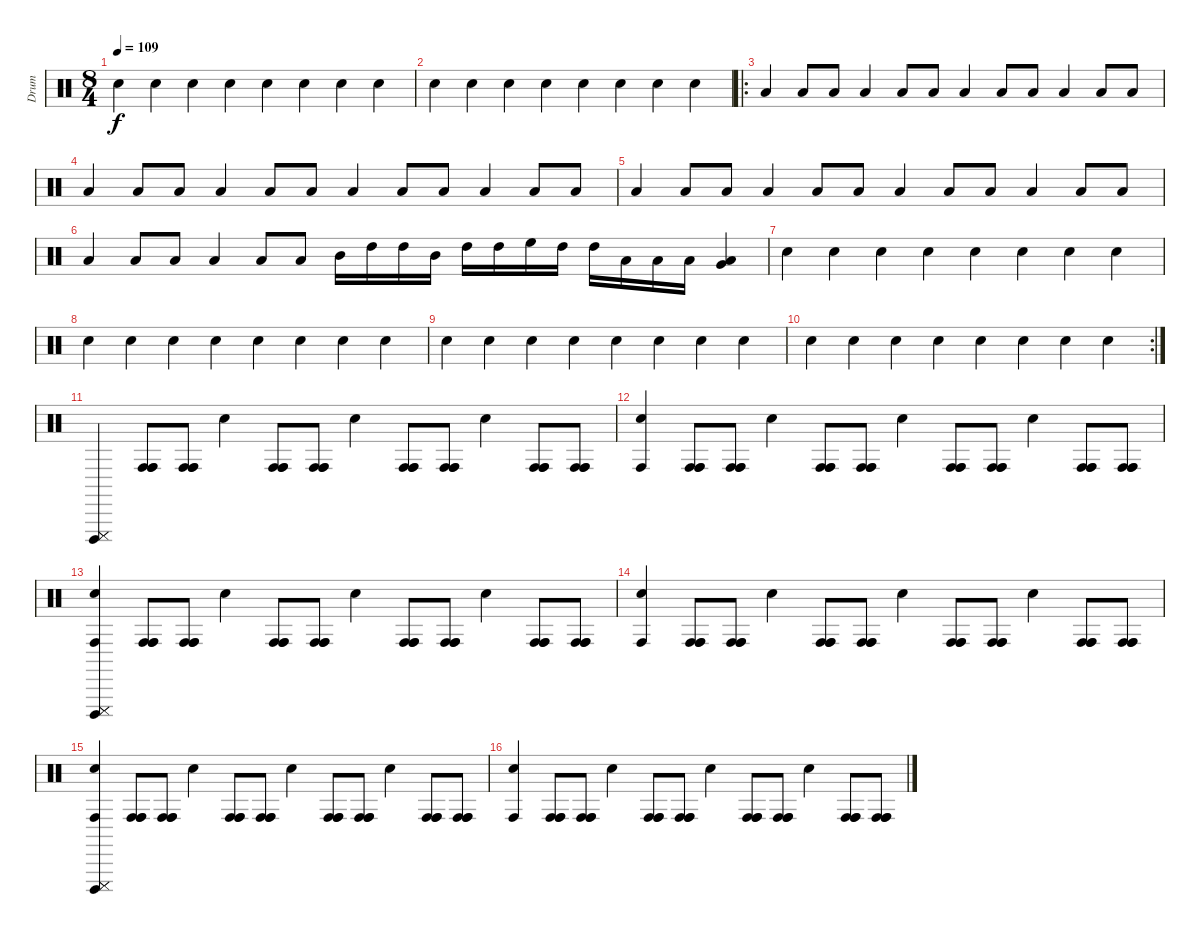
\track ("Drum" "Drum") {instrument percussion}
\staff {score}
\articulation defaults
\ts (8 4)
\tempo 109
\clef neutral
\ks c "Snare (hit)"{x}.4{dy f} "Hand Clap (hit)".4 "Hand Clap (hit)"{x}.4 "Hand Clap (hit)".4 "Hand Clap (hit)"{x}.4 "Hand Clap (hit)".4 "Hand Clap (hit)"{x}.4 "Hand Clap (hit)".4
|
"Hand Clap (hit)"{x}.4 "Hand Clap (hit)".4 "Hand Clap (hit)"{x}.4 "Hand Clap (hit)".4 "Hand Clap (hit)"{x}.4 "Hand Clap (hit)".4 "Hand Clap (hit)"{x}.4 "Hand Clap (hit)".4 |
\ro "Low Tom (hit)".4 "Low Floor Tom (hit)".8 "Low Floor Tom (hit)".8 "Low Tom (hit)".4 "Low Floor Tom (hit)".8 "Low Floor Tom (hit)".8 "Low Tom (hit)".4 "Low Floor Tom (hit)".8 "Low Floor Tom (hit)".8 "Low Tom (hit)".4 "Low Floor Tom (hit)".8 "Low Floor Tom (hit)".8
|
"Low Tom (hit)".4 "Low Floor Tom (hit)".8 "Low Floor Tom (hit)".8 "Low Tom (hit)".4 "Low Floor Tom (hit)".8 "Low Floor Tom (hit)".8 "Low Tom (hit)".4 "Low Floor Tom (hit)".8 "Low Floor Tom (hit)".8 "Low Tom (hit)".4 "Low Floor Tom (hit)".8 "Low Floor Tom (hit)".8 |
"Low Tom (hit)".4 "Low Floor Tom (hit)".8 "Low Floor Tom (hit)".8 "Low Tom (hit)".4 "Low Floor Tom (hit)".8 "Low Floor Tom (hit)".8 "Low Tom (hit)".4 "Low Floor Tom (hit)".8 "Low Floor Tom (hit)".8 "Low Tom (hit)".4 "Low Floor Tom (hit)".8 "Low Floor Tom (hit)".8 |
"Low Tom (hit)".4 "Low Floor Tom (hit)".8 "Low Floor Tom (hit)".8 "Low Tom (hit)".4 "Low Floor Tom (hit)".8 "Low Floor Tom (hit)".8 "Mid Tom (hit)".16 "High Tom (hit)".16 "High Tom (hit)".16 "Mid Tom (hit)".16 "High Tom (hit)".16 "High Tom (hit)".16 "High Floor Tom (hit)".16 "High Tom (hit)".16 "High Tom (hit)".16 "Low Floor Tom (hit)".16 "Low Floor Tom (hit)".16 "Low Floor Tom (hit)".16 ("Very Low Tom (hit)" "Low Floor Tom (hit)").4 |
"Snare (hit)"{x}.4 "Hand Clap (hit)".4 "Hand Clap (hit)"{x}.4 "Hand Clap (hit)".4 "Hand Clap (hit)"{x}.4 "Hand Clap (hit)".4 "Hand Clap (hit)"{x}.4 "Hand Clap (hit)".4 |
"Snare (hit)"{x}.4 "Hand Clap (hit)".4 "Hand Clap (hit)"{x}.4 "Hand Clap (hit)".4 "Hand Clap (hit)"{x}.4 "Hand Clap (hit)".4 "Hand Clap (hit)"{x}.4 "Hand Clap (hit)".4 |
"Snare (hit)"{x}.4 "Hand Clap (hit)".4 "Hand Clap (hit)"{x}.4 "Hand Clap (hit)".4 "Hand Clap (hit)"{x}.4 "Hand Clap (hit)".4 "Hand Clap (hit)"{x}.4 "Hand Clap (hit)".4 |
\rc 2 "Snare (hit)"{x}.4 "Hand Clap (hit)".4 "Hand Clap (hit)"{x}.4 "Hand Clap (hit)".4 "Hand Clap (hit)"{x}.4 "Hand Clap (hit)".4 "Hand Clap (hit)"{x}.4 "Hand Clap (hit)".4
|
("Cuica (open)" "Cuica (mute)" "Cuica (mute)").4 ("Conga high (hit)" "Conga high (hit)" "Conga high (hit)").8 ("Conga high (hit)" "Conga high (hit)" "Conga high (hit)").8 "Hand Clap (hit)".4 ("Conga high (hit)" "Conga high (hit)" "Conga high (hit)").8 ("Conga high (hit)" "Conga high (hit)" "Conga high (hit)").8 "Hand Clap (hit)".4 ("Conga high (hit)" "Conga high (hit)" "Conga high (hit)").8 ("Conga high (hit)" "Conga high (hit)" "Conga high (hit)").8 "Hand Clap (hit)".4 ("Conga high (hit)" "Conga high (hit)" "Conga high (hit)").8 ("Conga high (hit)" "Conga high (hit)" "Conga high (hit)").8 |
("Conga high (hit)" "Hand Clap (hit)").4 ("Conga high (hit)" "Conga high (hit)" "Conga high (hit)").8 ("Conga high (hit)" "Conga high (hit)" "Conga high (hit)").8 "Hand Clap (hit)".4 ("Conga high (hit)" "Conga high (hit)" "Conga high (hit)").8 ("Conga high (hit)" "Conga high (hit)" "Conga high (hit)").8 "Hand Clap (hit)".4 ("Conga high (hit)" "Conga high (hit)" "Conga high (hit)").8 ("Conga high (hit)" "Conga high (hit)" "Conga high (hit)").8 "Hand Clap (hit)".4 ("Conga high (hit)" "Conga high (hit)" "Conga high (hit)").8 ("Conga high (hit)" "Conga high (hit)" "Conga high (hit)").8 |
("Conga high (hit)" "Hand Clap (hit)" "Cuica (open)" "Cuica (mute)" "Cuica (mute)").4 ("Conga high (hit)" "Conga high (hit)" "Conga high (hit)").8 ("Conga high (hit)" "Conga high (hit)" "Conga high (hit)").8 "Hand Clap (hit)".4 ("Conga high (hit)" "Conga high (hit)" "Conga high (hit)").8 ("Conga high (hit)" "Conga high (hit)" "Conga high (hit)").8 "Hand Clap (hit)".4 ("Conga high (hit)" "Conga high (hit)" "Conga high (hit)").8 ("Conga high (hit)" "Conga high (hit)" "Conga high (hit)").8 "Hand Clap (hit)".4 ("Conga high (hit)" "Conga high (hit)" "Conga high (hit)").8 ("Conga high (hit)" "Conga high (hit)" "Conga high (hit)").8 |
("Conga high (hit)" "Hand Clap (hit)").4 ("Conga high (hit)" "Conga high (hit)" "Conga high (hit)").8 ("Conga high (hit)" "Conga high (hit)" "Conga high (hit)").8 "Hand Clap (hit)".4 ("Conga high (hit)" "Conga high (hit)" "Conga high (hit)").8 ("Conga high (hit)" "Conga high (hit)" "Conga high (hit)").8 "Hand Clap (hit)".4 ("Conga high (hit)" "Conga high (hit)" "Conga high (hit)").8 ("Conga high (hit)" "Conga high (hit)" "Conga high (hit)").8 "Hand Clap (hit)".4 ("Conga high (hit)" "Conga high (hit)" "Conga high (hit)").8 ("Conga high (hit)" "Conga high (hit)" "Conga high (hit)").8 |
("Conga high (hit)" "Hand Clap (hit)" "Cuica (open)" "Cuica (mute)" "Cuica (mute)").4 ("Conga high (hit)" "Conga high (hit)" "Conga high (hit)").8 ("Conga high (hit)" "Conga high (hit)" "Conga high (hit)").8 "Hand Clap (hit)".4 ("Conga high (hit)" "Conga high (hit)" "Conga high (hit)").8 ("Conga high (hit)" "Conga high (hit)" "Conga high (hit)").8 "Hand Clap (hit)".4 ("Conga high (hit)" "Conga high (hit)" "Conga high (hit)").8 ("Conga high (hit)" "Conga high (hit)" "Conga high (hit)").8 "Hand Clap (hit)".4 ("Conga high (hit)" "Conga high (hit)" "Conga high (hit)").8 ("Conga high (hit)" "Conga high (hit)" "Conga high (hit)").8 |
("Conga high (hit)" "Hand Clap (hit)").4 ("Conga high (hit)" "Conga high (hit)" "Conga high (hit)").8 ("Conga high (hit)" "Conga high (hit)" "Conga high (hit)").8 "Hand Clap (hit)".4 ("Conga high (hit)" "Conga high (hit)" "Conga high (hit)").8 ("Conga high (hit)" "Conga high (hit)" "Conga high (hit)").8 "Hand Clap (hit)".4 ("Conga high (hit)" "Conga high (hit)" "Conga high (hit)").8 ("Conga high (hit)" "Conga high (hit)" "Conga high (hit)").8 "Hand Clap (hit)".4 ("Conga high (hit)" "Conga high (hit)" "Conga high (hit)").8 ("Conga high (hit)" "Conga high (hit)" "Conga high (hit)").8
